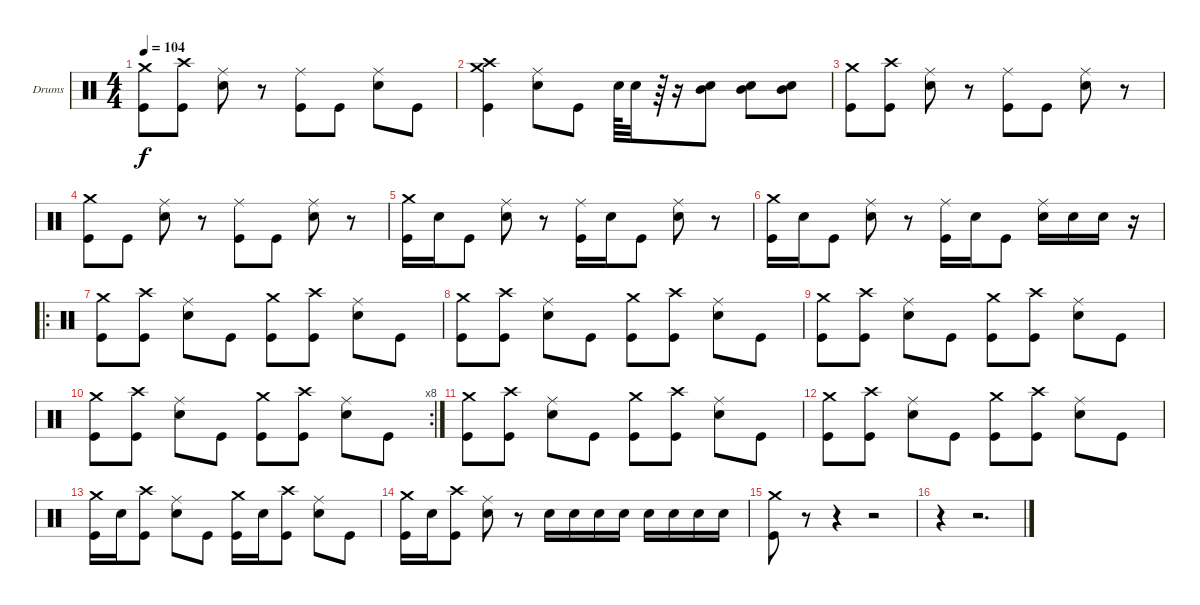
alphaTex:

\defaultSystemsLayout 4
\bracketExtendMode nobrackets
\firstSystemTrackNameOrientation horizontal
\otherSystemsTrackNameOrientation horizontal
\track ("Dave Krusen" "Drums") {instrument percussion}
\staff {score}
\articulation defaults
\ts (4 4)
\tempo 104
\clef neutral
\ks c
("Crash medium (hit)" "Kick (hit)").8{dy f} ("Crash high (hit)" "Kick (hit)").8 ("Ride (middle)" "Snare (hit) 2").8 r.8 ("Ride (middle)" "Kick (hit)").8 "Kick (hit)".8 ("Ride (middle)" "Snare (hit) 2").8 "Kick (hit)".8 |
("Crash high (hit)" "Kick (hit)" "Crash medium (hit)").4 ("Snare (hit) 2" "Ride (middle)").8 "Kick (hit)".8 "Snare (hit) 2".64 "Snare (hit) 2".32 r.64 r.16 ("Mid Tom (hit)" "Snare (hit) 2").8 ("Mid Tom (hit)" "Snare (hit) 2").8 ("Mid Tom (hit)" "Snare (hit) 2").8 |
("Crash medium (hit)" "Kick (hit)").8 ("Crash high (hit)" "Kick (hit)").8 ("Ride (middle)" "Snare (hit) 2").8 r.8 ("Ride (middle)" "Kick (hit)").8 "Kick (hit)".8 ("Ride (middle)" "Snare (hit) 2").8 r.8 |
("Crash medium (hit)" "Kick (hit)").8 "Kick (hit)".8 ("Ride (middle)" "Snare (hit) 2").8 r.8 ("Ride (middle)" "Kick (hit)").8 "Kick (hit)".8 ("Ride (middle)" "Snare (hit) 2").8 r.8 |
("Crash medium (hit)" "Kick (hit)").16 "Snare (hit) 2".16 "Kick (hit)".8 ("Ride (middle)" "Snare (hit) 2").8 r.8 ("Ride (middle)" "Kick (hit)").16 "Snare (hit) 2".16 "Kick (hit)".8 ("Ride (middle)" "Snare (hit) 2").8 r.8 |
("Crash medium (hit)" "Kick (hit)").16 "Snare (hit) 2".16 "Kick (hit)".8 ("Ride (middle)" "Snare (hit) 2").8 r.8 ("Ride (middle)" "Kick (hit)").16 "Snare (hit) 2".16 "Kick (hit)".8 ("Ride (middle)" "Snare (hit) 2").16 "Snare (hit) 2".16 "Snare (hit) 2".16 r.16 |
\ro
("Crash medium (hit)" "Kick (hit)").8 ("Crash high (hit)" "Kick (hit)").8 ("Ride (middle)" "Snare (hit) 2").8 "Kick (hit)".8 ("Crash medium (hit)" "Kick (hit)").8 ("Crash high (hit)" "Kick (hit)").8 ("Ride (middle)" "Snare (hit) 2").8 "Kick (hit)".8 |
("Crash medium (hit)" "Kick (hit)").8 ("Crash high (hit)" "Kick (hit)").8 ("Ride (middle)" "Snare (hit) 2").8 "Kick (hit)".8 ("Crash medium (hit)" "Kick (hit)").8 ("Crash high (hit)" "Kick (hit)").8 ("Ride (middle)" "Snare (hit) 2").8 "Kick (hit)".8 |
("Crash medium (hit)" "Kick (hit)").8 ("Crash high (hit)" "Kick (hit)").8 ("Ride (middle)" "Snare (hit) 2").8 "Kick (hit)".8 ("Crash medium (hit)" "Kick (hit)").8 ("Crash high (hit)" "Kick (hit)").8 ("Ride (middle)" "Snare (hit) 2").8 "Kick (hit)".8 |
\rc 8
("Crash medium (hit)" "Kick (hit)").8 ("Crash high (hit)" "Kick (hit)").8 ("Ride (middle)" "Snare (hit) 2").8 "Kick (hit)".8 ("Crash medium (hit)" "Kick (hit)").8 ("Crash high (hit)" "Kick (hit)").8 ("Ride (middle)" "Snare (hit) 2").8 "Kick (hit)".8 |
("Crash medium (hit)" "Kick (hit)").8 ("Crash high (hit)" "Kick (hit)").8 ("Ride (middle)" "Snare (hit) 2").8 "Kick (hit)".8 ("Crash medium (hit)" "Kick (hit)").8 ("Crash high (hit)" "Kick (hit)").8 ("Ride (middle)" "Snare (hit) 2").8 "Kick (hit)".8 |
("Crash medium (hit)" "Kick (hit)").8 ("Crash high (hit)" "Kick (hit)").8 ("Ride (middle)" "Snare (hit) 2").8 "Kick (hit)".8 ("Crash medium (hit)" "Kick (hit)").8 ("Crash high (hit)" "Kick (hit)").8 ("Ride (middle)" "Snare (hit) 2").8 "Kick (hit)".8 |
("Crash medium (hit)" "Kick (hit)").16 "Snare (hit) 2".16 ("Crash high (hit)" "Kick (hit)").8 ("Ride (middle)" "Snare (hit) 2").8 "Kick (hit)".8 ("Crash medium (hit)" "Kick (hit)").16 "Snare (hit) 2".16 ("Crash high (hit)" "Kick (hit)").8 ("Ride (middle)" "Snare (hit) 2").8 "Kick (hit)".8 |
("Crash medium (hit)" "Kick (hit)").16 "Snare (hit) 2".16 ("Crash high (hit)" "Kick (hit)").8 ("Ride (middle)" "Snare (hit) 2").8 r.8 "Snare (hit) 2".16 "Snare (hit) 2".16 "Snare (hit) 2".16 "Snare (hit) 2".16 "Snare (hit) 2".16 "Snare (hit) 2".16 "Snare (hit) 2".16 "Snare (hit) 2".16 |
("Crash medium (hit)" "Kick (hit)").8 r.8 r.4 r.2 |
r.4 r.2{d}
